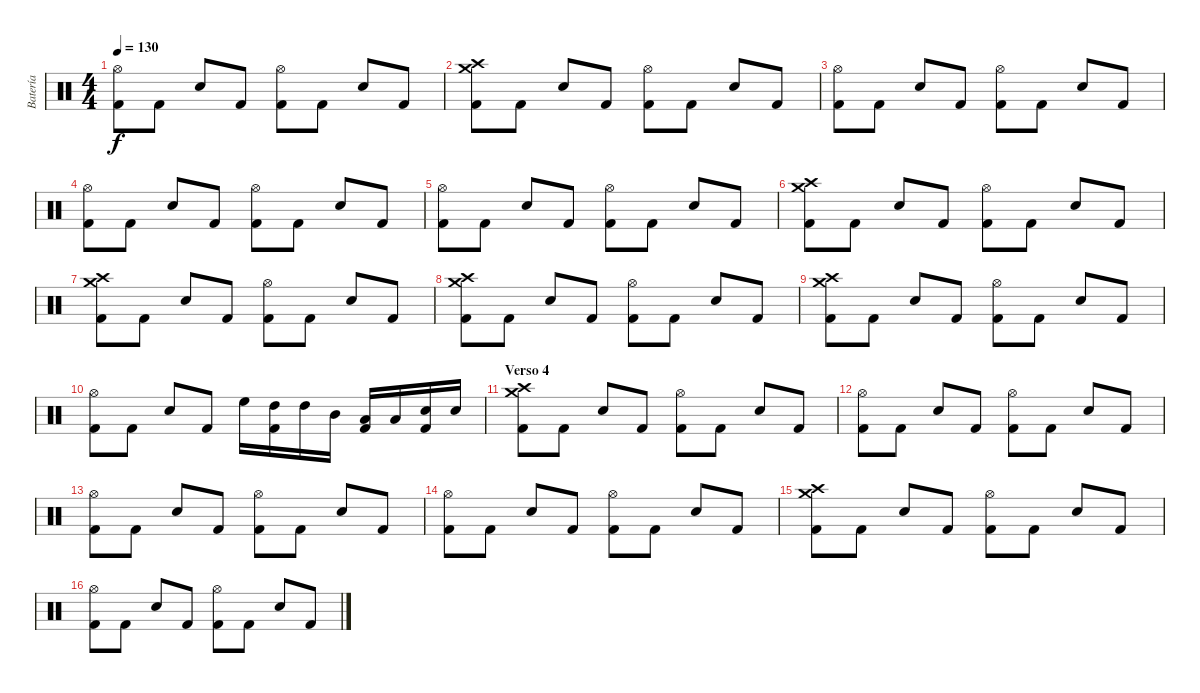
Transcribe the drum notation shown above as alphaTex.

\track ("Batería" "Batería") {instrument percussion}
\staff {score}
\articulation defaults
\ts (4 4)
\tempo 130
\clef neutral
\ks c
("Hi-Hat (open)" "Kick (hit) 2").8{dy f} "Kick (hit) 2".8 "Snare (hit) 2".8 "Kick (hit) 2".8 ("Hi-Hat (open)" "Kick (hit) 2").8 "Kick (hit) 2".8 "Snare (hit) 2".8 "Kick (hit) 2".8 |
("Crash medium (hit)" "Crash high (hit)" "Kick (hit) 2").8 "Kick (hit) 2".8 "Snare (hit) 2".8 "Kick (hit) 2".8 ("Hi-Hat (open)" "Kick (hit) 2").8 "Kick (hit) 2".8 "Snare (hit) 2".8 "Kick (hit) 2".8 |
("Hi-Hat (open)" "Kick (hit) 2").8 "Kick (hit) 2".8 "Snare (hit) 2".8 "Kick (hit) 2".8 ("Hi-Hat (open)" "Kick (hit) 2").8 "Kick (hit) 2".8 "Snare (hit) 2".8 "Kick (hit) 2".8 |
("Hi-Hat (open)" "Kick (hit) 2").8 "Kick (hit) 2".8 "Snare (hit) 2".8 "Kick (hit) 2".8 ("Hi-Hat (open)" "Kick (hit) 2").8 "Kick (hit) 2".8 "Snare (hit) 2".8 "Kick (hit) 2".8 |
("Hi-Hat (open)" "Kick (hit) 2").8 "Kick (hit) 2".8 "Snare (hit) 2".8 "Kick (hit) 2".8 ("Hi-Hat (open)" "Kick (hit) 2").8 "Kick (hit) 2".8 "Snare (hit) 2".8 "Kick (hit) 2".8 |
("Crash medium (hit)" "Crash high (hit)" "Kick (hit) 2").8 "Kick (hit) 2".8 "Snare (hit) 2".8 "Kick (hit) 2".8 ("Hi-Hat (open)" "Kick (hit) 2").8 "Kick (hit) 2".8 "Snare (hit) 2".8 "Kick (hit) 2".8 |
("Crash medium (hit)" "Crash high (hit)" "Kick (hit) 2").8 "Kick (hit) 2".8 "Snare (hit) 2".8 "Kick (hit) 2".8 ("Hi-Hat (open)" "Kick (hit) 2").8 "Kick (hit) 2".8 "Snare (hit) 2".8 "Kick (hit) 2".8 |
("Crash medium (hit)" "Crash high (hit)" "Kick (hit) 2").8 "Kick (hit) 2".8 "Snare (hit) 2".8 "Kick (hit) 2".8 ("Hi-Hat (open)" "Kick (hit) 2").8 "Kick (hit) 2".8 "Snare (hit) 2".8 "Kick (hit) 2".8 |
("Crash medium (hit)" "Crash high (hit)" "Kick (hit) 2").8 "Kick (hit) 2".8 "Snare (hit) 2".8 "Kick (hit) 2".8 ("Hi-Hat (open)" "Kick (hit) 2").8 "Kick (hit) 2".8 "Snare (hit) 2".8 "Kick (hit) 2".8 |
("Hi-Hat (open)" "Kick (hit) 2").8 "Kick (hit) 2".8 "Snare (hit) 2".8 "Kick (hit) 2".8 "High Floor Tom (hit)".16 ("High Tom (hit)" "Kick (hit) 2").16 "High Tom (hit)".16 "Mid Tom (hit)".16 ("Low Tom (hit)" "Kick (hit) 2").16 "Low Tom (hit)".16 ("Snare (hit) 2" "Kick (hit) 2").16 "Snare (hit) 2".16 |
\section ("" "Verso 4")
("Crash medium (hit)" "Crash high (hit)" "Kick (hit) 2").8 "Kick (hit) 2".8 "Snare (hit) 2".8 "Kick (hit) 2".8 ("Hi-Hat (open)" "Kick (hit) 2").8 "Kick (hit) 2".8 "Snare (hit) 2".8 "Kick (hit) 2".8 |
("Hi-Hat (open)" "Kick (hit) 2").8 "Kick (hit) 2".8 "Snare (hit) 2".8 "Kick (hit) 2".8 ("Hi-Hat (open)" "Kick (hit) 2").8 "Kick (hit) 2".8 "Snare (hit) 2".8 "Kick (hit) 2".8 |
("Hi-Hat (open)" "Kick (hit) 2").8 "Kick (hit) 2".8 "Snare (hit) 2".8 "Kick (hit) 2".8 ("Hi-Hat (open)" "Kick (hit) 2").8 "Kick (hit) 2".8 "Snare (hit) 2".8 "Kick (hit) 2".8 |
("Hi-Hat (open)" "Kick (hit) 2").8 "Kick (hit) 2".8 "Snare (hit) 2".8 "Kick (hit) 2".8 ("Hi-Hat (open)" "Kick (hit) 2").8 "Kick (hit) 2".8 "Snare (hit) 2".8 "Kick (hit) 2".8 |
("Crash medium (hit)" "Crash high (hit)" "Kick (hit) 2").8 "Kick (hit) 2".8 "Snare (hit) 2".8 "Kick (hit) 2".8 ("Hi-Hat (open)" "Kick (hit) 2").8 "Kick (hit) 2".8 "Snare (hit) 2".8 "Kick (hit) 2".8 |
("Hi-Hat (open)" "Kick (hit) 2").8 "Kick (hit) 2".8 "Snare (hit) 2".8 "Kick (hit) 2".8 ("Hi-Hat (open)" "Kick (hit) 2").8 "Kick (hit) 2".8 "Snare (hit) 2".8 "Kick (hit) 2".8
